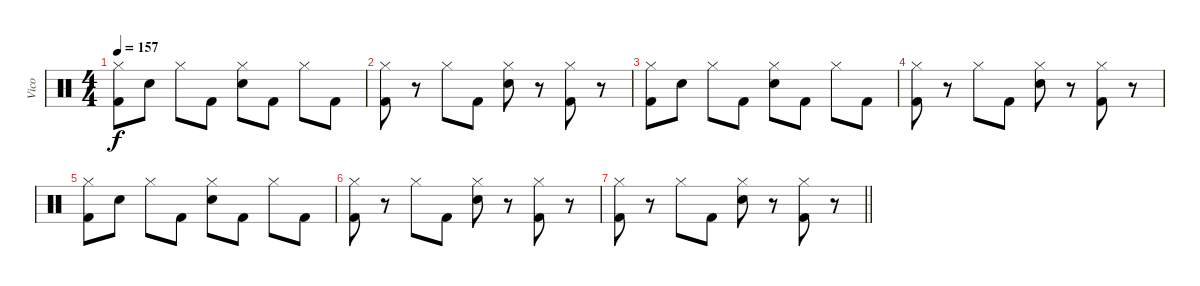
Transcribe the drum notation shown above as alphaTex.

\track ("Vico" "Vico") {instrument percussion}
\staff {score}
\articulation defaults
\ts (4 4)
\tempo 157
\clef neutral
\ks c
("Hi-Hat (closed)" "Kick (hit) 2").8{dy f} "Electric Snare (hit)".8 "Hi-Hat (closed)".8 "Kick (hit) 2".8 ("Hi-Hat (closed)" "Electric Snare (hit)").8 "Kick (hit) 2".8 "Hi-Hat (closed)".8 "Kick (hit) 2".8 |
("Hi-Hat (closed)" "Kick (hit) 2").8 r.8 "Hi-Hat (closed)".8 "Kick (hit) 2".8 ("Hi-Hat (closed)" "Electric Snare (hit)").8 r.8 ("Hi-Hat (closed)" "Kick (hit) 2").8 r.8 |
("Hi-Hat (closed)" "Kick (hit) 2").8 "Electric Snare (hit)".8 "Hi-Hat (closed)".8 "Kick (hit) 2".8 ("Hi-Hat (closed)" "Electric Snare (hit)").8 "Kick (hit) 2".8 "Hi-Hat (closed)".8 "Kick (hit) 2".8 |
("Hi-Hat (closed)" "Kick (hit) 2").8 r.8 "Hi-Hat (closed)".8 "Kick (hit) 2".8 ("Hi-Hat (closed)" "Electric Snare (hit)").8 r.8 ("Hi-Hat (closed)" "Kick (hit) 2").8 r.8 |
("Hi-Hat (closed)" "Kick (hit) 2").8 "Electric Snare (hit)".8 "Hi-Hat (closed)".8 "Kick (hit) 2".8 ("Hi-Hat (closed)" "Electric Snare (hit)").8 "Kick (hit) 2".8 "Hi-Hat (closed)".8 "Kick (hit) 2".8 |
("Hi-Hat (closed)" "Kick (hit) 2").8 r.8 "Hi-Hat (closed)".8 "Kick (hit) 2".8 ("Hi-Hat (closed)" "Electric Snare (hit)").8 r.8 ("Hi-Hat (closed)" "Kick (hit) 2").8 r.8 |
\barLineRight lightlight
("Hi-Hat (closed)" "Kick (hit) 2").8 r.8 "Hi-Hat (closed)".8 "Kick (hit) 2".8 ("Hi-Hat (closed)" "Electric Snare (hit)").8 r.8 ("Hi-Hat (closed)" "Kick (hit) 2").8 r.8
